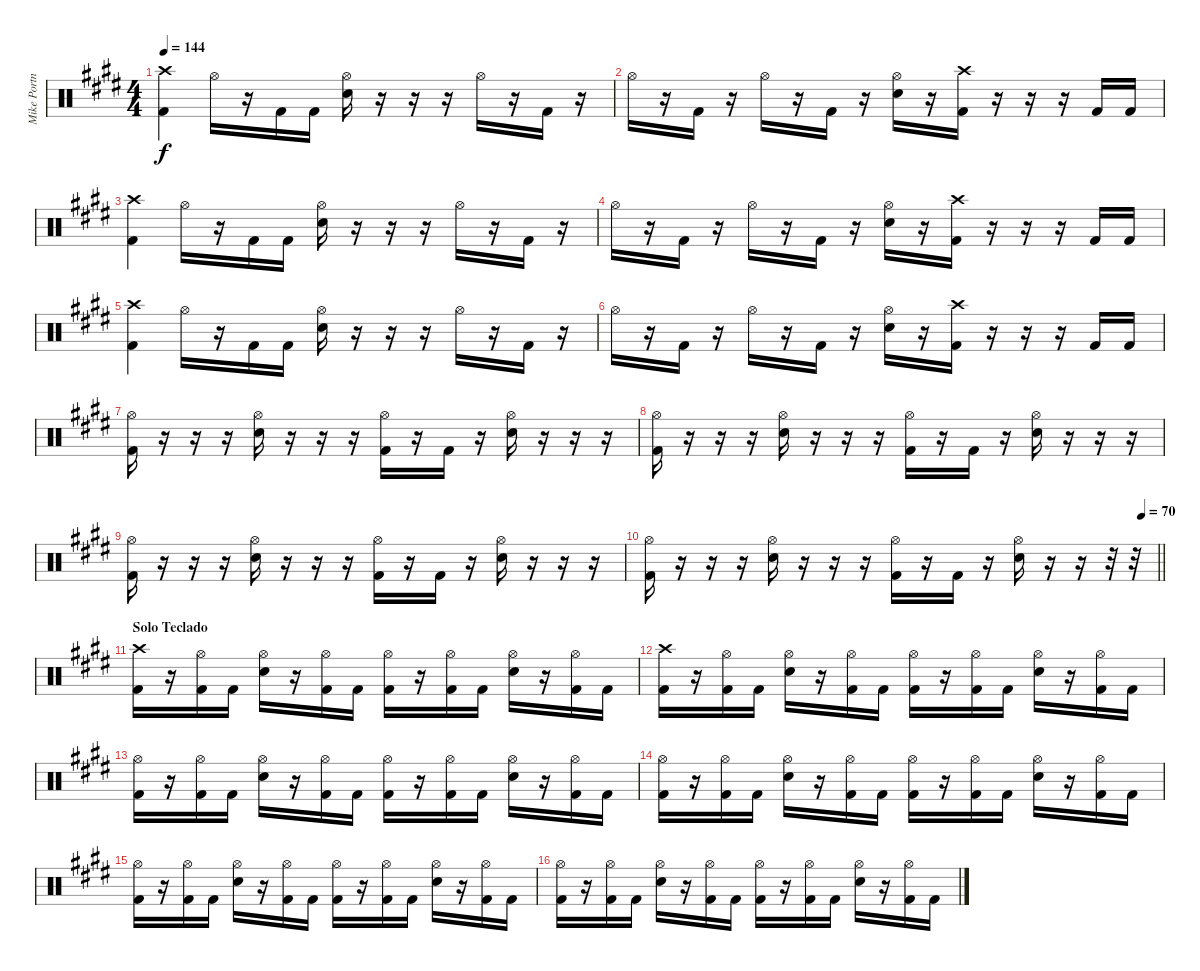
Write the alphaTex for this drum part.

\track ("Mike Portnoy" "Mike Portn") {instrument percussion}
\staff {score}
\articulation defaults
\ts (4 4)
\tempo 144
\clef neutral
\ks e
("Kick (hit) 2" "Crash high (hit)").4{dy f} "Hi-Hat (open)".16 r.16 "Kick (hit) 2".16 "Kick (hit) 2".16 ("Snare (hit) 2" "Hi-Hat (open)").16 r.16 r.16 r.16 "Hi-Hat (open)".16 r.16 "Kick (hit) 2".16 r.16 |
"Hi-Hat (open)".16 r.16 "Kick (hit) 2".16 r.16 "Hi-Hat (open)".16 r.16 "Kick (hit) 2".16 r.16 ("Snare (hit) 2" "Hi-Hat (open)").16 r.16 ("Crash high (hit)" "Kick (hit) 2").16 r.16 r.16 r.16 "Kick (hit) 2".16 "Kick (hit) 2".16 |
("Kick (hit) 2" "Crash high (hit)").4 "Hi-Hat (open)".16 r.16 "Kick (hit) 2".16 "Kick (hit) 2".16 ("Snare (hit) 2" "Hi-Hat (open)").16 r.16 r.16 r.16 "Hi-Hat (open)".16 r.16 "Kick (hit) 2".16 r.16 |
"Hi-Hat (open)".16 r.16 "Kick (hit) 2".16 r.16 "Hi-Hat (open)".16 r.16 "Kick (hit) 2".16 r.16 ("Snare (hit) 2" "Hi-Hat (open)").16 r.16 ("Crash high (hit)" "Kick (hit) 2").16 r.16 r.16 r.16 "Kick (hit) 2".16 "Kick (hit) 2".16 |
("Kick (hit) 2" "Crash high (hit)").4 "Hi-Hat (open)".16 r.16 "Kick (hit) 2".16 "Kick (hit) 2".16 ("Snare (hit) 2" "Hi-Hat (open)").16 r.16 r.16 r.16 "Hi-Hat (open)".16 r.16 "Kick (hit) 2".16 r.16 |
"Hi-Hat (open)".16 r.16 "Kick (hit) 2".16 r.16 "Hi-Hat (open)".16 r.16 "Kick (hit) 2".16 r.16 ("Snare (hit) 2" "Hi-Hat (open)").16 r.16 ("Crash high (hit)" "Kick (hit) 2").16 r.16 r.16 r.16 "Kick (hit) 2".16 "Kick (hit) 2".16 |
("Hi-Hat (open)" "Kick (hit) 2").16 r.16 r.16 r.16 ("Hi-Hat (open)" "Snare (hit) 2").16 r.16 r.16 r.16 ("Hi-Hat (open)" "Kick (hit) 2").16 r.16 "Kick (hit) 2".16 r.16 ("Hi-Hat (open)" "Snare (hit) 2").16 r.16 r.16 r.16 |
("Hi-Hat (open)" "Kick (hit) 2").16 r.16 r.16 r.16 ("Hi-Hat (open)" "Snare (hit) 2").16 r.16 r.16 r.16 ("Hi-Hat (open)" "Kick (hit) 2").16 r.16 "Kick (hit) 2".16 r.16 ("Hi-Hat (open)" "Snare (hit) 2").16 r.16 r.16 r.16 |
("Hi-Hat (open)" "Kick (hit) 2").16 r.16 r.16 r.16 ("Hi-Hat (open)" "Snare (hit) 2").16 r.16 r.16 r.16 ("Hi-Hat (open)" "Kick (hit) 2").16 r.16 "Kick (hit) 2".16 r.16 ("Hi-Hat (open)" "Snare (hit) 2").16 r.16 r.16 r.16 |
\tempo (70 0.96875)
\barLineRight lightlight
("Hi-Hat (open)" "Kick (hit) 2").16 r.16 r.16 r.16 ("Hi-Hat (open)" "Snare (hit) 2").16 r.16 r.16 r.16 ("Hi-Hat (open)" "Kick (hit) 2").16 r.16 "Kick (hit) 2".16 r.16 ("Hi-Hat (open)" "Snare (hit) 2").16 r.16 r.16 r.32 r.32 |
\section ("" "Solo Teclado")
("Crash high (hit)" "Kick (hit) 2").16 r.16 ("Hi-Hat (open)" "Kick (hit) 2").16 "Kick (hit) 2".16 ("Hi-Hat (open)" "Snare (hit) 2").16 r.16 ("Hi-Hat (open)" "Kick (hit) 2").16 "Kick (hit) 2".16 ("Hi-Hat (open)" "Kick (hit) 2").16 r.16 ("Hi-Hat (open)" "Kick (hit) 2").16 "Kick (hit) 2".16 ("Hi-Hat (open)" "Snare (hit) 2").16 r.16 ("Hi-Hat (open)" "Kick (hit) 2").16 "Kick (hit) 2".16 |
("Crash high (hit)" "Kick (hit) 2").16 r.16 ("Hi-Hat (open)" "Kick (hit) 2").16 "Kick (hit) 2".16 ("Hi-Hat (open)" "Snare (hit) 2").16 r.16 ("Hi-Hat (open)" "Kick (hit) 2").16 "Kick (hit) 2".16 ("Hi-Hat (open)" "Kick (hit) 2").16 r.16 ("Hi-Hat (open)" "Kick (hit) 2").16 "Kick (hit) 2".16 ("Hi-Hat (open)" "Snare (hit) 2").16 r.16 ("Hi-Hat (open)" "Kick (hit) 2").16 "Kick (hit) 2".16 |
("Hi-Hat (open)" "Kick (hit) 2").16 r.16 ("Hi-Hat (open)" "Kick (hit) 2").16 "Kick (hit) 2".16 ("Hi-Hat (open)" "Snare (hit) 2").16 r.16 ("Hi-Hat (open)" "Kick (hit) 2").16 "Kick (hit) 2".16 ("Hi-Hat (open)" "Kick (hit) 2").16 r.16 ("Hi-Hat (open)" "Kick (hit) 2").16 "Kick (hit) 2".16 ("Hi-Hat (open)" "Snare (hit) 2").16 r.16 ("Hi-Hat (open)" "Kick (hit) 2").16 "Kick (hit) 2".16 |
("Hi-Hat (open)" "Kick (hit) 2").16 r.16 ("Hi-Hat (open)" "Kick (hit) 2").16 "Kick (hit) 2".16 ("Hi-Hat (open)" "Snare (hit) 2").16 r.16 ("Hi-Hat (open)" "Kick (hit) 2").16 "Kick (hit) 2".16 ("Hi-Hat (open)" "Kick (hit) 2").16 r.16 ("Hi-Hat (open)" "Kick (hit) 2").16 "Kick (hit) 2".16 ("Hi-Hat (open)" "Snare (hit) 2").16 r.16 ("Hi-Hat (open)" "Kick (hit) 2").16 "Kick (hit) 2".16 |
("Hi-Hat (open)" "Kick (hit) 2").16 r.16 ("Hi-Hat (open)" "Kick (hit) 2").16 "Kick (hit) 2".16 ("Hi-Hat (open)" "Snare (hit) 2").16 r.16 ("Hi-Hat (open)" "Kick (hit) 2").16 "Kick (hit) 2".16 ("Hi-Hat (open)" "Kick (hit) 2").16 r.16 ("Hi-Hat (open)" "Kick (hit) 2").16 "Kick (hit) 2".16 ("Hi-Hat (open)" "Snare (hit) 2").16 r.16 ("Hi-Hat (open)" "Kick (hit) 2").16 "Kick (hit) 2".16 |
("Hi-Hat (open)" "Kick (hit) 2").16 r.16 ("Hi-Hat (open)" "Kick (hit) 2").16 "Kick (hit) 2".16 ("Hi-Hat (open)" "Snare (hit) 2").16 r.16 ("Hi-Hat (open)" "Kick (hit) 2").16 "Kick (hit) 2".16 ("Hi-Hat (open)" "Kick (hit) 2").16 r.16 ("Hi-Hat (open)" "Kick (hit) 2").16 "Kick (hit) 2".16 ("Hi-Hat (open)" "Snare (hit) 2").16 r.16 ("Hi-Hat (open)" "Kick (hit) 2").16 "Kick (hit) 2".16
